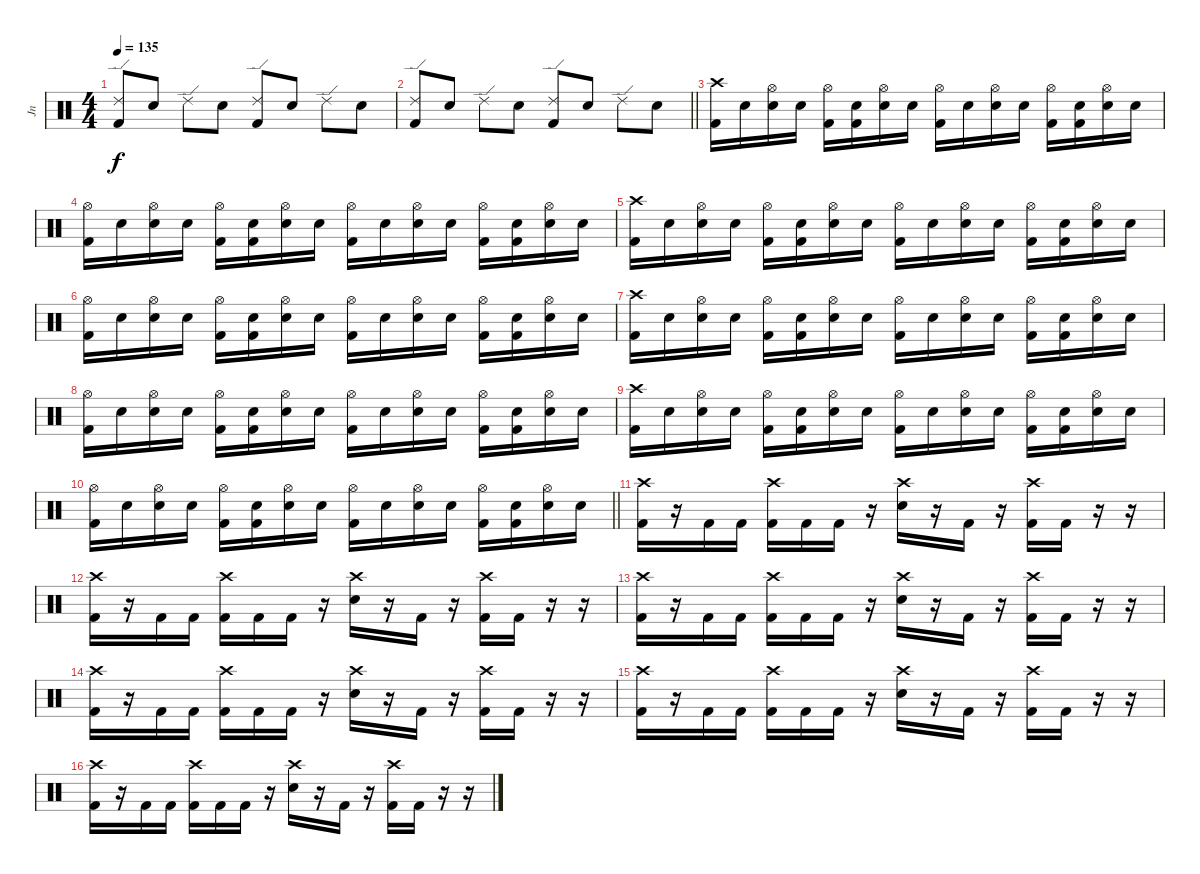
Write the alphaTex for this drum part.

\track ("Jn" "Jn") {instrument percussion}
\staff {score}
\articulation defaults
\ts (4 4)
\tempo 135
\clef neutral
\ks c
("Ride (edge) 2" "Kick (hit) 2").8{dy f} "Snare (hit)".8 "Ride (edge) 2".8 "Snare (hit)".8 ("Ride (edge) 2" "Kick (hit) 2").8 "Snare (hit)".8 "Ride (edge) 2".8 "Snare (hit)".8 |
\barLineRight lightlight
("Ride (edge) 2" "Kick (hit) 2").8 "Snare (hit)".8 "Ride (edge) 2".8 "Snare (hit)".8 ("Ride (edge) 2" "Kick (hit) 2").8 "Snare (hit)".8 "Ride (edge) 2".8 "Snare (hit)".8 |
("Crash high (hit)" "Kick (hit) 2").16 "Snare (hit)".16 ("Hi-Hat (open)" "Electric Snare (hit)").16 "Snare (hit)".16 ("Hi-Hat (open)" "Kick (hit) 2").16 ("Snare (hit)" "Kick (hit) 2").16 ("Hi-Hat (open)" "Electric Snare (hit)").16 "Snare (hit)".16 ("Hi-Hat (open)" "Kick (hit) 2").16 "Snare (hit)".16 ("Hi-Hat (open)" "Electric Snare (hit)").16 "Snare (hit)".16 ("Hi-Hat (open)" "Kick (hit) 2").16 ("Snare (hit)" "Kick (hit) 2").16 ("Hi-Hat (open)" "Electric Snare (hit)").16 "Snare (hit)".16 |
("Hi-Hat (open)" "Kick (hit) 2").16 "Snare (hit)".16 ("Hi-Hat (open)" "Electric Snare (hit)").16 "Snare (hit)".16 ("Hi-Hat (open)" "Kick (hit) 2").16 ("Snare (hit)" "Kick (hit) 2").16 ("Hi-Hat (open)" "Electric Snare (hit)").16 "Snare (hit)".16 ("Hi-Hat (open)" "Kick (hit) 2").16 "Snare (hit)".16 ("Hi-Hat (open)" "Electric Snare (hit)").16 "Snare (hit)".16 ("Hi-Hat (open)" "Kick (hit) 2").16 ("Snare (hit)" "Kick (hit) 2").16 ("Hi-Hat (open)" "Electric Snare (hit)").16 "Snare (hit)".16 |
("Crash high (hit)" "Kick (hit) 2").16 "Snare (hit)".16 ("Hi-Hat (open)" "Electric Snare (hit)").16 "Snare (hit)".16 ("Hi-Hat (open)" "Kick (hit) 2").16 ("Snare (hit)" "Kick (hit) 2").16 ("Hi-Hat (open)" "Electric Snare (hit)").16 "Snare (hit)".16 ("Hi-Hat (open)" "Kick (hit) 2").16 "Snare (hit)".16 ("Hi-Hat (open)" "Electric Snare (hit)").16 "Snare (hit)".16 ("Hi-Hat (open)" "Kick (hit) 2").16 ("Snare (hit)" "Kick (hit) 2").16 ("Hi-Hat (open)" "Electric Snare (hit)").16 "Snare (hit)".16 |
("Hi-Hat (open)" "Kick (hit) 2").16 "Snare (hit)".16 ("Hi-Hat (open)" "Electric Snare (hit)").16 "Snare (hit)".16 ("Hi-Hat (open)" "Kick (hit) 2").16 ("Snare (hit)" "Kick (hit) 2").16 ("Hi-Hat (open)" "Electric Snare (hit)").16 "Snare (hit)".16 ("Hi-Hat (open)" "Kick (hit) 2").16 "Snare (hit)".16 ("Hi-Hat (open)" "Electric Snare (hit)").16 "Snare (hit)".16 ("Hi-Hat (open)" "Kick (hit) 2").16 ("Snare (hit)" "Kick (hit) 2").16 ("Hi-Hat (open)" "Electric Snare (hit)").16 "Snare (hit)".16 |
("Crash high (hit)" "Kick (hit) 2").16 "Snare (hit)".16 ("Hi-Hat (open)" "Electric Snare (hit)").16 "Snare (hit)".16 ("Hi-Hat (open)" "Kick (hit) 2").16 ("Snare (hit)" "Kick (hit) 2").16 ("Hi-Hat (open)" "Electric Snare (hit)").16 "Snare (hit)".16 ("Hi-Hat (open)" "Kick (hit) 2").16 "Snare (hit)".16 ("Hi-Hat (open)" "Electric Snare (hit)").16 "Snare (hit)".16 ("Hi-Hat (open)" "Kick (hit) 2").16 ("Snare (hit)" "Kick (hit) 2").16 ("Hi-Hat (open)" "Electric Snare (hit)").16 "Snare (hit)".16 |
("Hi-Hat (open)" "Kick (hit) 2").16 "Snare (hit)".16 ("Hi-Hat (open)" "Electric Snare (hit)").16 "Snare (hit)".16 ("Hi-Hat (open)" "Kick (hit) 2").16 ("Snare (hit)" "Kick (hit) 2").16 ("Hi-Hat (open)" "Electric Snare (hit)").16 "Snare (hit)".16 ("Hi-Hat (open)" "Kick (hit) 2").16 "Snare (hit)".16 ("Hi-Hat (open)" "Electric Snare (hit)").16 "Snare (hit)".16 ("Hi-Hat (open)" "Kick (hit) 2").16 ("Snare (hit)" "Kick (hit) 2").16 ("Hi-Hat (open)" "Electric Snare (hit)").16 "Snare (hit)".16 |
("Crash high (hit)" "Kick (hit) 2").16 "Snare (hit)".16 ("Hi-Hat (open)" "Electric Snare (hit)").16 "Snare (hit)".16 ("Hi-Hat (open)" "Kick (hit) 2").16 ("Snare (hit)" "Kick (hit) 2").16 ("Hi-Hat (open)" "Electric Snare (hit)").16 "Snare (hit)".16 ("Hi-Hat (open)" "Kick (hit) 2").16 "Snare (hit)".16 ("Hi-Hat (open)" "Electric Snare (hit)").16 "Snare (hit)".16 ("Hi-Hat (open)" "Kick (hit) 2").16 ("Snare (hit)" "Kick (hit) 2").16 ("Hi-Hat (open)" "Electric Snare (hit)").16 "Snare (hit)".16 |
\barLineRight lightlight
("Hi-Hat (open)" "Kick (hit) 2").16 "Snare (hit)".16 ("Hi-Hat (open)" "Electric Snare (hit)").16 "Snare (hit)".16 ("Hi-Hat (open)" "Kick (hit) 2").16 ("Snare (hit)" "Kick (hit) 2").16 ("Hi-Hat (open)" "Electric Snare (hit)").16 "Snare (hit)".16 ("Hi-Hat (open)" "Kick (hit) 2").16 "Snare (hit)".16 ("Hi-Hat (open)" "Electric Snare (hit)").16 "Snare (hit)".16 ("Hi-Hat (open)" "Kick (hit) 2").16 ("Snare (hit)" "Kick (hit) 2").16 ("Hi-Hat (open)" "Electric Snare (hit)").16 "Snare (hit)".16 |
("Crash high (hit)" "Kick (hit) 2").16 r.16 "Kick (hit) 2".16 "Kick (hit) 2".16 ("Crash high (hit)" "Kick (hit) 2").16 "Kick (hit) 2".16 "Kick (hit) 2".16 r.16 ("Crash high (hit)" "Electric Snare (hit)").16 r.16 "Kick (hit) 2".16 r.16 ("Crash high (hit)" "Kick (hit) 2").16 "Kick (hit) 2".16 r.16 r.16 |
("Crash high (hit)" "Kick (hit) 2").16 r.16 "Kick (hit) 2".16 "Kick (hit) 2".16 ("Crash high (hit)" "Kick (hit) 2").16 "Kick (hit) 2".16 "Kick (hit) 2".16 r.16 ("Crash high (hit)" "Electric Snare (hit)").16 r.16 "Kick (hit) 2".16 r.16 ("Crash high (hit)" "Kick (hit) 2").16 "Kick (hit) 2".16 r.16 r.16 |
("Crash high (hit)" "Kick (hit) 2").16 r.16 "Kick (hit) 2".16 "Kick (hit) 2".16 ("Crash high (hit)" "Kick (hit) 2").16 "Kick (hit) 2".16 "Kick (hit) 2".16 r.16 ("Crash high (hit)" "Electric Snare (hit)").16 r.16 "Kick (hit) 2".16 r.16 ("Crash high (hit)" "Kick (hit) 2").16 "Kick (hit) 2".16 r.16 r.16 |
("Crash high (hit)" "Kick (hit) 2").16 r.16 "Kick (hit) 2".16 "Kick (hit) 2".16 ("Crash high (hit)" "Kick (hit) 2").16 "Kick (hit) 2".16 "Kick (hit) 2".16 r.16 ("Crash high (hit)" "Electric Snare (hit)").16 r.16 "Kick (hit) 2".16 r.16 ("Crash high (hit)" "Kick (hit) 2").16 "Kick (hit) 2".16 r.16 r.16 |
("Crash high (hit)" "Kick (hit) 2").16 r.16 "Kick (hit) 2".16 "Kick (hit) 2".16 ("Crash high (hit)" "Kick (hit) 2").16 "Kick (hit) 2".16 "Kick (hit) 2".16 r.16 ("Crash high (hit)" "Electric Snare (hit)").16 r.16 "Kick (hit) 2".16 r.16 ("Crash high (hit)" "Kick (hit) 2").16 "Kick (hit) 2".16 r.16 r.16 |
("Crash high (hit)" "Kick (hit) 2").16 r.16 "Kick (hit) 2".16 "Kick (hit) 2".16 ("Crash high (hit)" "Kick (hit) 2").16 "Kick (hit) 2".16 "Kick (hit) 2".16 r.16 ("Crash high (hit)" "Electric Snare (hit)").16 r.16 "Kick (hit) 2".16 r.16 ("Crash high (hit)" "Kick (hit) 2").16 "Kick (hit) 2".16 r.16 r.16
